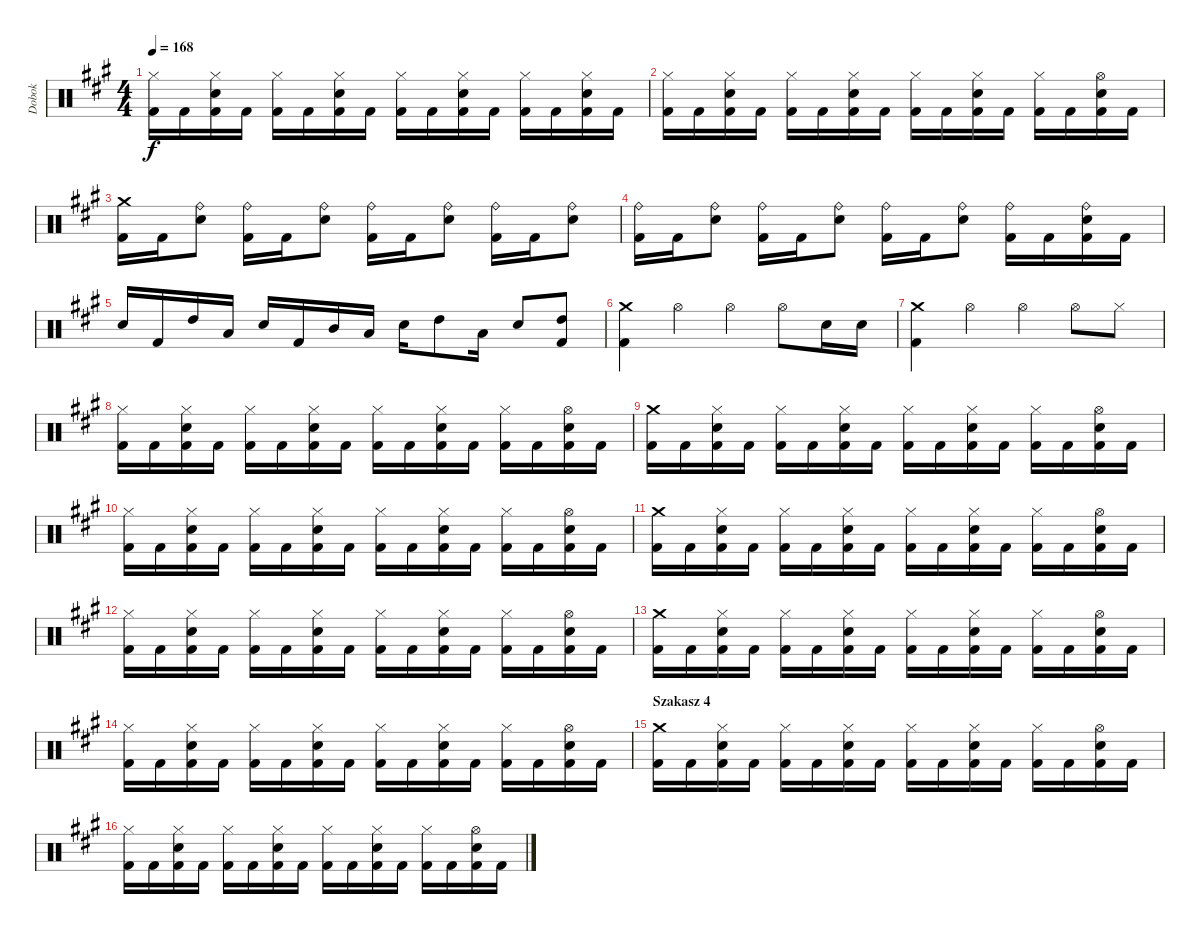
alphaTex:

\track ("Dobok" "Dobok") {instrument percussion}
\staff {score}
\articulation defaults
\ts (4 4)
\tempo 168
\clef neutral
\ks f#minor
("Hi-Hat (closed)" "Kick (hit) 2").16{dy f} "Kick (hit) 2".16 ("Hi-Hat (closed)" "Snare (hit) 2" "Kick (hit) 2").16 "Kick (hit) 2".16 ("Hi-Hat (closed)" "Kick (hit) 2").16 "Kick (hit) 2".16 ("Hi-Hat (closed)" "Snare (hit) 2" "Kick (hit) 2").16 "Kick (hit) 2".16 ("Hi-Hat (closed)" "Kick (hit) 2").16 "Kick (hit) 2".16 ("Hi-Hat (closed)" "Snare (hit) 2" "Kick (hit) 2").16 "Kick (hit) 2".16 ("Hi-Hat (closed)" "Kick (hit) 2").16 "Kick (hit) 2".16 ("Hi-Hat (closed)" "Snare (hit) 2" "Kick (hit) 2").16 "Kick (hit) 2".16 |
("Hi-Hat (closed)" "Kick (hit) 2").16 "Kick (hit) 2".16 ("Hi-Hat (closed)" "Snare (hit) 2" "Kick (hit) 2").16 "Kick (hit) 2".16 ("Hi-Hat (closed)" "Kick (hit) 2").16 "Kick (hit) 2".16 ("Hi-Hat (closed)" "Snare (hit) 2" "Kick (hit) 2").16 "Kick (hit) 2".16 ("Hi-Hat (closed)" "Kick (hit) 2").16 "Kick (hit) 2".16 ("Hi-Hat (closed)" "Snare (hit) 2" "Kick (hit) 2").16 "Kick (hit) 2".16 ("Hi-Hat (closed)" "Kick (hit) 2").16 "Kick (hit) 2".16 ("Hi-Hat (open)" "Snare (hit) 2" "Kick (hit) 2").16 "Kick (hit) 2".16 |
("Crash medium (hit)" "Kick (hit) 2").16 "Kick (hit) 2".16 ("Ride (bell)" "Snare (hit) 2").8 ("Ride (bell)" "Kick (hit) 2").16 "Kick (hit) 2".16 ("Ride (bell)" "Snare (hit) 2").8 ("Ride (bell)" "Kick (hit) 2").16 "Kick (hit) 2".16 ("Ride (bell)" "Snare (hit) 2").8 ("Ride (bell)" "Kick (hit) 2").16 "Kick (hit) 2".16 ("Ride (bell)" "Snare (hit) 2").8 |
("Ride (bell)" "Kick (hit) 2").16 "Kick (hit) 2".16 ("Ride (bell)" "Snare (hit) 2").8 ("Ride (bell)" "Kick (hit) 2").16 "Kick (hit) 2".16 ("Ride (bell)" "Snare (hit) 2").8 ("Ride (bell)" "Kick (hit) 2").16 "Kick (hit) 2".16 ("Ride (bell)" "Snare (hit) 2").8 ("Ride (bell)" "Kick (hit) 2").16 "Kick (hit) 2".16 ("Ride (bell)" "Snare (hit) 2" "Kick (hit) 2").16 "Kick (hit) 2".16 |
"Snare (hit) 2".16 "Kick (hit) 2".16 "High Tom (hit)".16 "Low Tom (hit)".16 "Snare (hit) 2".16 "Kick (hit) 2".16 "Mid Tom (hit)".16 "Low Tom (hit)".16 "Snare (hit) 2".16 "High Tom (hit)".8 "Low Tom (hit)".16 "Snare (hit) 2".8 ("High Tom (hit)" "Kick (hit) 2").8 |
("Crash medium (hit)" "Kick (hit) 2").4 "Hi-Hat (open)".4 "Hi-Hat (open)".4 "Hi-Hat (open)".8 "Snare (hit) 2".16 "Snare (hit) 2".16 |
("Crash medium (hit)" "Kick (hit) 2").4 "Hi-Hat (open)".4 "Hi-Hat (open)".4 "Hi-Hat (open)".8 "Hi-Hat (closed)".8 |
("Hi-Hat (closed)" "Kick (hit) 2").16 "Kick (hit) 2".16 ("Hi-Hat (closed)" "Snare (hit) 2" "Kick (hit) 2").16 "Kick (hit) 2".16 ("Hi-Hat (closed)" "Kick (hit) 2").16 "Kick (hit) 2".16 ("Hi-Hat (closed)" "Snare (hit) 2" "Kick (hit) 2").16 "Kick (hit) 2".16 ("Hi-Hat (closed)" "Kick (hit) 2").16 "Kick (hit) 2".16 ("Hi-Hat (closed)" "Snare (hit) 2" "Kick (hit) 2").16 "Kick (hit) 2".16 ("Hi-Hat (closed)" "Kick (hit) 2").16 "Kick (hit) 2".16 ("Hi-Hat (open)" "Snare (hit) 2" "Kick (hit) 2").16 "Kick (hit) 2".16 |
("Crash medium (hit)" "Kick (hit) 2").16 "Kick (hit) 2".16 ("Hi-Hat (closed)" "Snare (hit) 2" "Kick (hit) 2").16 "Kick (hit) 2".16 ("Hi-Hat (closed)" "Kick (hit) 2").16 "Kick (hit) 2".16 ("Hi-Hat (closed)" "Snare (hit) 2" "Kick (hit) 2").16 "Kick (hit) 2".16 ("Hi-Hat (closed)" "Kick (hit) 2").16 "Kick (hit) 2".16 ("Hi-Hat (closed)" "Snare (hit) 2" "Kick (hit) 2").16 "Kick (hit) 2".16 ("Hi-Hat (closed)" "Kick (hit) 2").16 "Kick (hit) 2".16 ("Hi-Hat (open)" "Snare (hit) 2" "Kick (hit) 2").16 "Kick (hit) 2".16 |
("Hi-Hat (closed)" "Kick (hit) 2").16 "Kick (hit) 2".16 ("Hi-Hat (closed)" "Snare (hit) 2" "Kick (hit) 2").16 "Kick (hit) 2".16 ("Hi-Hat (closed)" "Kick (hit) 2").16 "Kick (hit) 2".16 ("Hi-Hat (closed)" "Snare (hit) 2" "Kick (hit) 2").16 "Kick (hit) 2".16 ("Hi-Hat (closed)" "Kick (hit) 2").16 "Kick (hit) 2".16 ("Hi-Hat (closed)" "Snare (hit) 2" "Kick (hit) 2").16 "Kick (hit) 2".16 ("Hi-Hat (closed)" "Kick (hit) 2").16 "Kick (hit) 2".16 ("Hi-Hat (open)" "Snare (hit) 2" "Kick (hit) 2").16 "Kick (hit) 2".16 |
("Crash medium (hit)" "Kick (hit) 2").16 "Kick (hit) 2".16 ("Hi-Hat (closed)" "Snare (hit) 2" "Kick (hit) 2").16 "Kick (hit) 2".16 ("Hi-Hat (closed)" "Kick (hit) 2").16 "Kick (hit) 2".16 ("Hi-Hat (closed)" "Snare (hit) 2" "Kick (hit) 2").16 "Kick (hit) 2".16 ("Hi-Hat (closed)" "Kick (hit) 2").16 "Kick (hit) 2".16 ("Hi-Hat (closed)" "Snare (hit) 2" "Kick (hit) 2").16 "Kick (hit) 2".16 ("Hi-Hat (closed)" "Kick (hit) 2").16 "Kick (hit) 2".16 ("Hi-Hat (open)" "Snare (hit) 2" "Kick (hit) 2").16 "Kick (hit) 2".16 |
("Hi-Hat (closed)" "Kick (hit) 2").16 "Kick (hit) 2".16 ("Hi-Hat (closed)" "Snare (hit) 2" "Kick (hit) 2").16 "Kick (hit) 2".16 ("Hi-Hat (closed)" "Kick (hit) 2").16 "Kick (hit) 2".16 ("Hi-Hat (closed)" "Snare (hit) 2" "Kick (hit) 2").16 "Kick (hit) 2".16 ("Hi-Hat (closed)" "Kick (hit) 2").16 "Kick (hit) 2".16 ("Hi-Hat (closed)" "Snare (hit) 2" "Kick (hit) 2").16 "Kick (hit) 2".16 ("Hi-Hat (closed)" "Kick (hit) 2").16 "Kick (hit) 2".16 ("Hi-Hat (open)" "Snare (hit) 2" "Kick (hit) 2").16 "Kick (hit) 2".16 |
("Crash medium (hit)" "Kick (hit) 2").16 "Kick (hit) 2".16 ("Hi-Hat (closed)" "Snare (hit) 2" "Kick (hit) 2").16 "Kick (hit) 2".16 ("Hi-Hat (closed)" "Kick (hit) 2").16 "Kick (hit) 2".16 ("Hi-Hat (closed)" "Snare (hit) 2" "Kick (hit) 2").16 "Kick (hit) 2".16 ("Hi-Hat (closed)" "Kick (hit) 2").16 "Kick (hit) 2".16 ("Hi-Hat (closed)" "Snare (hit) 2" "Kick (hit) 2").16 "Kick (hit) 2".16 ("Hi-Hat (closed)" "Kick (hit) 2").16 "Kick (hit) 2".16 ("Hi-Hat (open)" "Snare (hit) 2" "Kick (hit) 2").16 "Kick (hit) 2".16 |
("Hi-Hat (closed)" "Kick (hit) 2").16 "Kick (hit) 2".16 ("Hi-Hat (closed)" "Snare (hit) 2" "Kick (hit) 2").16 "Kick (hit) 2".16 ("Hi-Hat (closed)" "Kick (hit) 2").16 "Kick (hit) 2".16 ("Hi-Hat (closed)" "Snare (hit) 2" "Kick (hit) 2").16 "Kick (hit) 2".16 ("Hi-Hat (closed)" "Kick (hit) 2").16 "Kick (hit) 2".16 ("Hi-Hat (closed)" "Snare (hit) 2" "Kick (hit) 2").16 "Kick (hit) 2".16 ("Hi-Hat (closed)" "Kick (hit) 2").16 "Kick (hit) 2".16 ("Hi-Hat (open)" "Snare (hit) 2" "Kick (hit) 2").16 "Kick (hit) 2".16 |
\section ("" "Szakasz 4")
("Crash medium (hit)" "Kick (hit) 2").16 "Kick (hit) 2".16 ("Hi-Hat (closed)" "Snare (hit) 2" "Kick (hit) 2").16 "Kick (hit) 2".16 ("Hi-Hat (closed)" "Kick (hit) 2").16 "Kick (hit) 2".16 ("Hi-Hat (closed)" "Snare (hit) 2" "Kick (hit) 2").16 "Kick (hit) 2".16 ("Hi-Hat (closed)" "Kick (hit) 2").16 "Kick (hit) 2".16 ("Hi-Hat (closed)" "Snare (hit) 2" "Kick (hit) 2").16 "Kick (hit) 2".16 ("Hi-Hat (closed)" "Kick (hit) 2").16 "Kick (hit) 2".16 ("Hi-Hat (open)" "Snare (hit) 2" "Kick (hit) 2").16 "Kick (hit) 2".16 |
("Hi-Hat (closed)" "Kick (hit) 2").16 "Kick (hit) 2".16 ("Hi-Hat (closed)" "Snare (hit) 2" "Kick (hit) 2").16 "Kick (hit) 2".16 ("Hi-Hat (closed)" "Kick (hit) 2").16 "Kick (hit) 2".16 ("Hi-Hat (closed)" "Snare (hit) 2" "Kick (hit) 2").16 "Kick (hit) 2".16 ("Hi-Hat (closed)" "Kick (hit) 2").16 "Kick (hit) 2".16 ("Hi-Hat (closed)" "Snare (hit) 2" "Kick (hit) 2").16 "Kick (hit) 2".16 ("Hi-Hat (closed)" "Kick (hit) 2").16 "Kick (hit) 2".16 ("Hi-Hat (open)" "Snare (hit) 2" "Kick (hit) 2").16 "Kick (hit) 2".16
